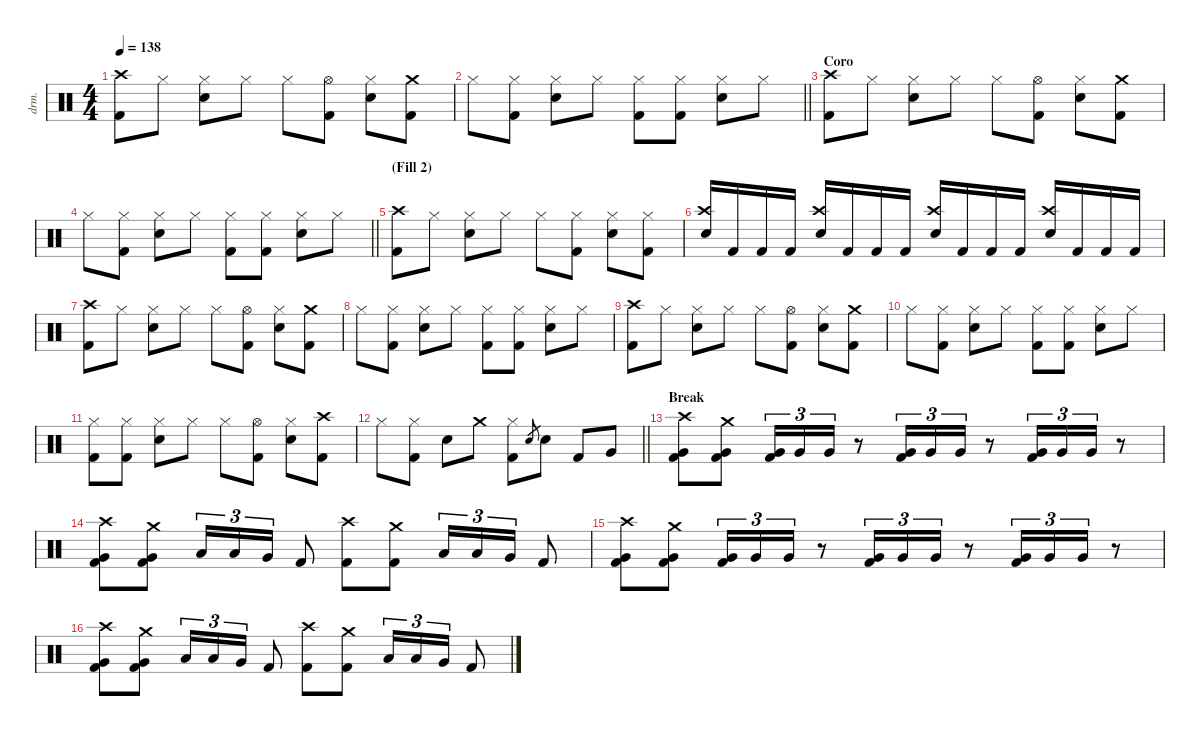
\defaultSystemsLayout 4
\hideDynamics
\bracketExtendMode nobrackets
\otherSystemsTrackNameOrientation horizontal
\track ("Lee Kerslake" "drm.") {instrument percussion}
\staff {score}
\articulation defaults
\ts (4 4)
\tempo 138
\clef neutral
\ks c
("Crash high (hit)" "Kick (hit) 2").8{dy f beam Down} "Hi-Hat (closed)".8{beam Down} ("Hi-Hat (closed)" "Snare (hit) 2").8{beam Down} "Hi-Hat (closed)".8{beam Down} "Hi-Hat (closed)".8{beam Down} ("Hi-Hat (open)" "Kick (hit) 2").8{beam Down} ("Hi-Hat (closed)" "Snare (hit) 2").8{beam Down} ("Crash medium (hit)" "Kick (hit) 2").8{beam Down} |
\barLineRight lightlight "Hi-Hat (closed)".8{beam Down}
("Hi-Hat (closed)" "Kick (hit) 2").8{beam Down} ("Hi-Hat (closed)" "Snare (hit) 2").8{beam Down} "Hi-Hat (closed)".8{beam Down} ("Hi-Hat (closed)" "Kick (hit) 2").8{beam Down} ("Hi-Hat (closed)" "Kick (hit) 2").8{beam Down} ("Hi-Hat (closed)" "Snare (hit) 2").8{beam Down} "Hi-Hat (closed)".8{beam Down} |
\section ("" "Coro")
("Crash high (hit)" "Kick (hit) 2").8{beam Down} "Hi-Hat (closed)".8{beam Down} ("Hi-Hat (closed)" "Snare (hit) 2").8{beam Down} "Hi-Hat (closed)".8{beam Down} "Hi-Hat (closed)".8{beam Down} ("Hi-Hat (open)" "Kick (hit) 2").8{beam Down} ("Hi-Hat (closed)" "Snare (hit) 2").8{beam Down} ("Crash medium (hit)" "Kick (hit) 2").8{beam Down} |
\barLineRight lightlight "Hi-Hat (closed)".8{beam Down}
("Hi-Hat (closed)" "Kick (hit) 2").8{beam Down} ("Hi-Hat (closed)" "Snare (hit) 2").8{beam Down} "Hi-Hat (closed)".8{beam Down} ("Hi-Hat (closed)" "Kick (hit) 2").8{beam Down} ("Hi-Hat (closed)" "Kick (hit) 2").8{beam Down} ("Hi-Hat (closed)" "Snare (hit) 2").8{beam Down} "Hi-Hat (closed)".8{beam Down} |
\section ("" "(Fill 2)")
("Crash high (hit)" "Kick (hit) 2").8{beam Down} "Hi-Hat (closed)".8{beam Down} ("Hi-Hat (closed)" "Snare (hit) 2").8{beam Down} "Hi-Hat (closed)".8{beam Down} "Hi-Hat (closed)".8{beam Down} ("Hi-Hat (closed)" "Kick (hit) 2").8{beam Down} ("Hi-Hat (closed)" "Snare (hit) 2").8{beam Down} ("Hi-Hat (closed)" "Kick (hit) 2").8{beam Down} |
("Snare (hit) 2" "Crash high (hit)").16{beam Up} "Kick (hit) 2".16{beam Up} "Kick (hit) 2".16{beam Up} "Kick (hit) 2".16{beam Up} ("Snare (hit) 2" "Crash high (hit)").16{beam Up} "Kick (hit) 2".16{beam Up} "Kick (hit) 2".16{beam Up} "Kick (hit) 2".16{beam Up} ("Snare (hit) 2" "Crash high (hit)").16{beam Up} "Kick (hit) 2".16{beam Up} "Kick (hit) 2".16{beam Up} "Kick (hit) 2".16{beam Up} ("Snare (hit) 2" "Crash high (hit)").16{beam Up} "Kick (hit) 2".16{beam Up} "Kick (hit) 2".16{beam Up} "Kick (hit) 2".16{beam Up} |
("Crash high (hit)" "Kick (hit) 2").8{beam Down} "Hi-Hat (closed)".8{beam Down} ("Hi-Hat (closed)" "Snare (hit) 2").8{beam Down} "Hi-Hat (closed)".8{beam Down} "Hi-Hat (closed)".8{beam Down} ("Hi-Hat (open)" "Kick (hit) 2").8{beam Down} ("Hi-Hat (closed)" "Snare (hit) 2").8{beam Down} ("Crash medium (hit)" "Kick (hit) 2").8{beam Down} |
"Hi-Hat (closed)".8{beam Down} ("Hi-Hat (closed)" "Kick (hit) 2").8{beam Down} ("Hi-Hat (closed)" "Snare (hit) 2").8{beam Down} "Hi-Hat (closed)".8{beam Down} ("Hi-Hat (closed)" "Kick (hit) 2").8{beam Down} ("Hi-Hat (closed)" "Kick (hit) 2").8{beam Down} ("Hi-Hat (closed)" "Snare (hit) 2").8{beam Down} "Hi-Hat (closed)".8{beam Down} |
("Crash high (hit)" "Kick (hit) 2").8{beam Down} "Hi-Hat (closed)".8{beam Down} ("Hi-Hat (closed)" "Snare (hit) 2").8{beam Down} "Hi-Hat (closed)".8{beam Down} "Hi-Hat (closed)".8{beam Down} ("Hi-Hat (open)" "Kick (hit) 2").8{beam Down} ("Hi-Hat (closed)" "Snare (hit) 2").8{beam Down} ("Crash medium (hit)" "Kick (hit) 2").8{beam Down} |
"Hi-Hat (closed)".8{beam Down} ("Hi-Hat (closed)" "Kick (hit) 2").8{beam Down} ("Hi-Hat (closed)" "Snare (hit) 2").8{beam Down} "Hi-Hat (closed)".8{beam Down} ("Hi-Hat (closed)" "Kick (hit) 2").8{beam Down} ("Hi-Hat (closed)" "Kick (hit) 2").8{beam Down} ("Hi-Hat (closed)" "Snare (hit) 2").8{beam Down} "Hi-Hat (closed)".8{beam Down} |
("Hi-Hat (closed)" "Kick (hit) 2").8{beam Down} ("Hi-Hat (closed)" "Kick (hit) 2").8{beam Down} ("Hi-Hat (closed)" "Snare (hit) 2").8{beam Down} "Hi-Hat (closed)".8{beam Down} "Hi-Hat (closed)".8{beam Down} ("Hi-Hat (open)" "Kick (hit) 2").8{beam Down} ("Hi-Hat (closed)" "Snare (hit) 2").8{beam Down} ("Crash high (hit)" "Kick (hit) 2").8{beam Down} |
\barLineRight lightlight "Hi-Hat (closed)".8{beam Down}
("Hi-Hat (closed)" "Kick (hit) 2").8{beam Down} "Snare (hit) 2".8{beam Down} "Crash medium (hit)".8{beam Down} ("Hi-Hat (closed)" "Kick (hit) 2").8{beam Down} "Snare (hit) 2".8{gr dy mf beam Up} "Snare (hit) 2".8{dy f beam Down} "Kick (hit) 2".8{beam Up} "Very Low Tom (hit)".8{beam Up} |
\section ("" "Break")
("Very Low Tom (hit)" "Crash high (hit)" "Kick (hit) 2").8{beam Down} ("Very Low Tom (hit)" "Crash medium (hit)" "Kick (hit) 2").8{beam Down} ("Very Low Tom (hit)" "Kick (hit) 2").16{tu (3 2) beam Up} "Very Low Tom (hit)".16{tu (3 2) beam Up} "Very Low Tom (hit)".16{tu (3 2) beam Up} r.8{beam Up} ("Very Low Tom (hit)" "Kick (hit) 2").16{tu (3 2) beam Up} "Very Low Tom (hit)".16{tu (3 2) beam Up} "Very Low Tom (hit)".16{tu (3 2) beam Up} r.8{beam Up} ("Very Low Tom (hit)" "Kick (hit) 2").16{tu (3 2) beam Up} "Very Low Tom (hit)".16{tu (3 2) beam Up} "Very Low Tom (hit)".16{tu (3 2) beam Up} r.8{beam Up} |
("Very Low Tom (hit)" "Crash high (hit)" "Kick (hit) 2").8{beam Down} ("Very Low Tom (hit)" "Crash medium (hit)" "Kick (hit) 2").8{beam Down} "Low Tom (hit)".16{tu (3 2) beam Up} "Low Tom (hit)".16{tu (3 2) beam Up} "Very Low Tom (hit)".16{tu (3 2) beam Up} "Kick (hit) 2".8{beam Up} ("Crash high (hit)" "Kick (hit) 2").8{beam Down} ("Crash medium (hit)" "Kick (hit) 2").8{beam Down} "Low Tom (hit)".16{tu (3 2) beam Up} "Low Tom (hit)".16{tu (3 2) beam Up} "Very Low Tom (hit)".16{tu (3 2) beam Up} "Kick (hit) 2".8{beam Up} |
("Very Low Tom (hit)" "Crash high (hit)" "Kick (hit) 2").8{beam Down} ("Very Low Tom (hit)" "Crash medium (hit)" "Kick (hit) 2").8{beam Down} ("Very Low Tom (hit)" "Kick (hit) 2").16{tu (3 2) beam Up} "Very Low Tom (hit)".16{tu (3 2) beam Up} "Very Low Tom (hit)".16{tu (3 2) beam Up} r.8{beam Up} ("Very Low Tom (hit)" "Kick (hit) 2").16{tu (3 2) beam Up} "Very Low Tom (hit)".16{tu (3 2) beam Up} "Very Low Tom (hit)".16{tu (3 2) beam Up} r.8{beam Up} ("Very Low Tom (hit)" "Kick (hit) 2").16{tu (3 2) beam Up} "Very Low Tom (hit)".16{tu (3 2) beam Up} "Very Low Tom (hit)".16{tu (3 2) beam Up} r.8{beam Up} |
("Very Low Tom (hit)" "Crash high (hit)" "Kick (hit) 2").8{beam Down} ("Very Low Tom (hit)" "Crash medium (hit)" "Kick (hit) 2").8{beam Down} "Low Tom (hit)".16{tu (3 2) beam Up} "Low Tom (hit)".16{tu (3 2) beam Up} "Very Low Tom (hit)".16{tu (3 2) beam Up} "Kick (hit) 2".8{beam Up} ("Crash high (hit)" "Kick (hit) 2").8{beam Down} ("Crash medium (hit)" "Kick (hit) 2").8{beam Down} "Low Tom (hit)".16{tu (3 2) beam Up} "Low Tom (hit)".16{tu (3 2) beam Up} "Very Low Tom (hit)".16{tu (3 2) beam Up} "Kick (hit) 2".8{beam Up}
